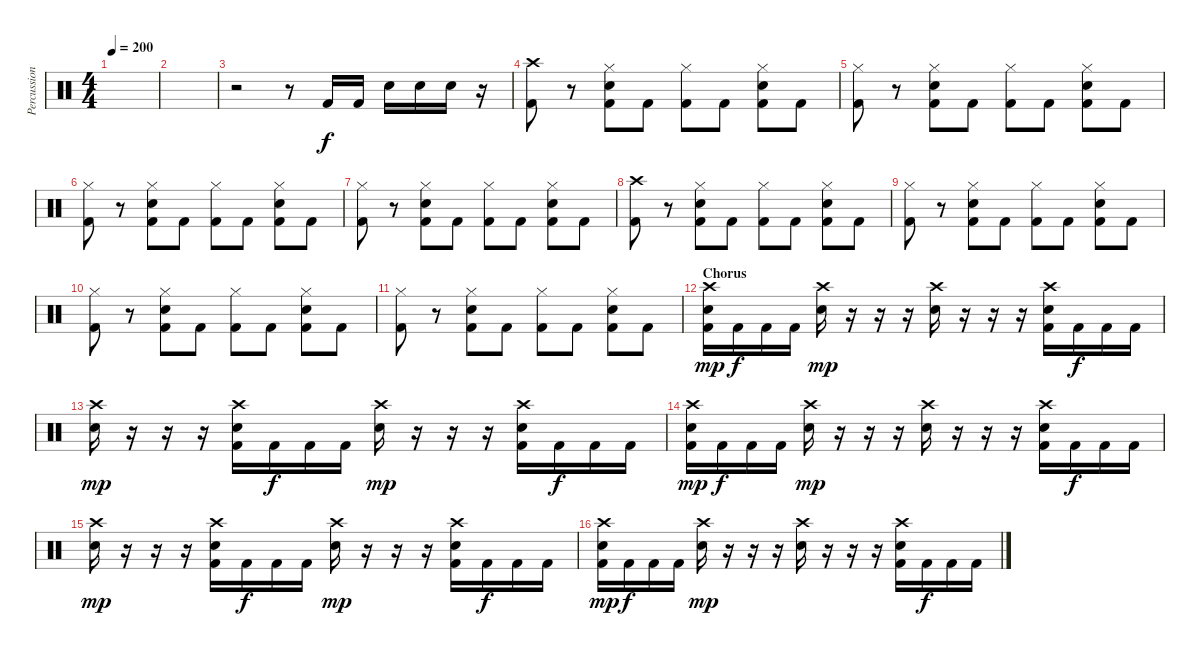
\track ("Percussions ( Brylle )" "Percussion") {instrument percussion}
\staff {score}
\articulation defaults
\ts (4 4)
\tempo 200
\clef neutral
\ks c
|
|
r.2 r.8 "Kick (hit) 2".16 "Kick (hit) 2".16 "Electric Snare (hit)".16 "Electric Snare (hit)".16 "Electric Snare (hit)".16 r.16 |
("Crash high (hit)" "Kick (hit) 2").8 r.8 ("Hi-Hat (closed)" "Electric Snare (hit)" "Kick (hit) 2").8 "Kick (hit) 2".8 ("Hi-Hat (closed)" "Kick (hit) 2").8 "Kick (hit) 2".8 ("Hi-Hat (closed)" "Electric Snare (hit)" "Kick (hit) 2").8 "Kick (hit) 2".8 |
("Hi-Hat (closed)" "Kick (hit) 2").8 r.8 ("Hi-Hat (closed)" "Electric Snare (hit)" "Kick (hit) 2").8 "Kick (hit) 2".8 ("Hi-Hat (closed)" "Kick (hit) 2").8 "Kick (hit) 2".8 ("Hi-Hat (closed)" "Electric Snare (hit)" "Kick (hit) 2").8 "Kick (hit) 2".8 |
("Hi-Hat (closed)" "Kick (hit) 2").8 r.8 ("Hi-Hat (closed)" "Electric Snare (hit)" "Kick (hit) 2").8 "Kick (hit) 2".8 ("Hi-Hat (closed)" "Kick (hit) 2").8 "Kick (hit) 2".8 ("Hi-Hat (closed)" "Electric Snare (hit)" "Kick (hit) 2").8 "Kick (hit) 2".8 |
("Hi-Hat (closed)" "Kick (hit) 2").8 r.8 ("Hi-Hat (closed)" "Electric Snare (hit)" "Kick (hit) 2").8 "Kick (hit) 2".8 ("Hi-Hat (closed)" "Kick (hit) 2").8 "Kick (hit) 2".8 ("Hi-Hat (closed)" "Electric Snare (hit)" "Kick (hit) 2").8 "Kick (hit) 2".8 |
("Crash high (hit)" "Kick (hit) 2").8 r.8 ("Hi-Hat (closed)" "Electric Snare (hit)" "Kick (hit) 2").8 "Kick (hit) 2".8 ("Hi-Hat (closed)" "Kick (hit) 2").8 "Kick (hit) 2".8 ("Hi-Hat (closed)" "Electric Snare (hit)" "Kick (hit) 2").8 "Kick (hit) 2".8 |
("Hi-Hat (closed)" "Kick (hit) 2").8 r.8 ("Hi-Hat (closed)" "Electric Snare (hit)" "Kick (hit) 2").8 "Kick (hit) 2".8 ("Hi-Hat (closed)" "Kick (hit) 2").8 "Kick (hit) 2".8 ("Hi-Hat (closed)" "Electric Snare (hit)" "Kick (hit) 2").8 "Kick (hit) 2".8 |
("Hi-Hat (closed)" "Kick (hit) 2").8 r.8 ("Hi-Hat (closed)" "Electric Snare (hit)" "Kick (hit) 2").8 "Kick (hit) 2".8 ("Hi-Hat (closed)" "Kick (hit) 2").8 "Kick (hit) 2".8 ("Hi-Hat (closed)" "Electric Snare (hit)" "Kick (hit) 2").8 "Kick (hit) 2".8 |
("Hi-Hat (closed)" "Kick (hit) 2").8 r.8 ("Hi-Hat (closed)" "Electric Snare (hit)" "Kick (hit) 2").8 "Kick (hit) 2".8 ("Hi-Hat (closed)" "Kick (hit) 2").8 "Kick (hit) 2".8 ("Hi-Hat (closed)" "Electric Snare (hit)" "Kick (hit) 2").8 "Kick (hit) 2".8 |
\section ("" "Chorus")
("Crash high (hit)" "Electric Snare (hit)" "Kick (hit) 2").16{dy mp} "Kick (hit) 2".16{dy f} "Kick (hit) 2".16 "Kick (hit) 2".16 ("Crash high (hit)" "Electric Snare (hit)").16{dy mp} r.16 r.16 r.16 ("Crash high (hit)" "Electric Snare (hit)").16 r.16 r.16 r.16 ("Crash high (hit)" "Electric Snare (hit)" "Kick (hit) 2").16 "Kick (hit) 2".16{dy f} "Kick (hit) 2".16 "Kick (hit) 2".16 |
("Crash high (hit)" "Electric Snare (hit)").16{dy mp} r.16 r.16 r.16 ("Crash high (hit)" "Electric Snare (hit)" "Kick (hit) 2").16 "Kick (hit) 2".16{dy f} "Kick (hit) 2".16 "Kick (hit) 2".16 ("Crash high (hit)" "Electric Snare (hit)").16{dy mp} r.16 r.16 r.16 ("Crash high (hit)" "Electric Snare (hit)" "Kick (hit) 2").16 "Kick (hit) 2".16{dy f} "Kick (hit) 2".16 "Kick (hit) 2".16 |
("Crash high (hit)" "Electric Snare (hit)" "Kick (hit) 2").16{dy mp} "Kick (hit) 2".16{dy f} "Kick (hit) 2".16 "Kick (hit) 2".16 ("Crash high (hit)" "Electric Snare (hit)").16{dy mp} r.16 r.16 r.16 ("Crash high (hit)" "Electric Snare (hit)").16 r.16 r.16 r.16 ("Crash high (hit)" "Electric Snare (hit)" "Kick (hit) 2").16 "Kick (hit) 2".16{dy f} "Kick (hit) 2".16 "Kick (hit) 2".16 |
("Crash high (hit)" "Electric Snare (hit)").16{dy mp} r.16 r.16 r.16 ("Crash high (hit)" "Electric Snare (hit)" "Kick (hit) 2").16 "Kick (hit) 2".16{dy f} "Kick (hit) 2".16 "Kick (hit) 2".16 ("Crash high (hit)" "Electric Snare (hit)").16{dy mp} r.16 r.16 r.16 ("Crash high (hit)" "Electric Snare (hit)" "Kick (hit) 2").16 "Kick (hit) 2".16{dy f} "Kick (hit) 2".16 "Kick (hit) 2".16 |
("Crash high (hit)" "Electric Snare (hit)" "Kick (hit) 2").16{dy mp} "Kick (hit) 2".16{dy f} "Kick (hit) 2".16 "Kick (hit) 2".16 ("Crash high (hit)" "Electric Snare (hit)").16{dy mp} r.16 r.16 r.16 ("Crash high (hit)" "Electric Snare (hit)").16 r.16 r.16 r.16 ("Crash high (hit)" "Electric Snare (hit)" "Kick (hit) 2").16 "Kick (hit) 2".16{dy f} "Kick (hit) 2".16 "Kick (hit) 2".16
